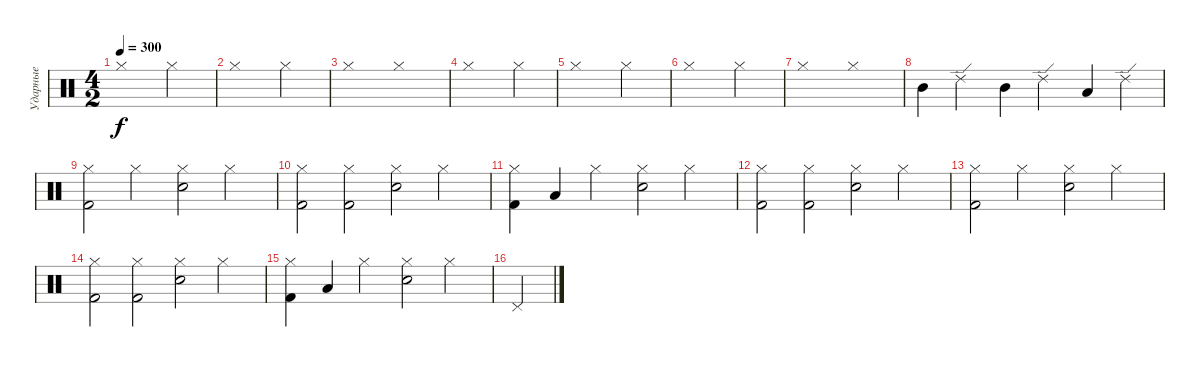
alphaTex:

\track ("Ударные" "Ударные") {instrument percussion}
\staff {score}
\articulation defaults
\ts (4 2)
\tempo 300
\clef neutral
\ks c "Hi-Hat (closed)".1{dy f} "Hi-Hat (closed)".2
|
"Hi-Hat (closed)".1 "Hi-Hat (closed)".2 |
"Hi-Hat (closed)".1 "Hi-Hat (closed)".1 |
"Hi-Hat (closed)".1 "Hi-Hat (closed)".4 |
"Hi-Hat (closed)".1 "Hi-Hat (closed)".2 |
"Hi-Hat (closed)".1 "Hi-Hat (closed)".2 |
"Hi-Hat (closed)".1 "Hi-Hat (closed)".1 |
"Mid Tom (hit)".4 "Ride (edge) 2".2 "Mid Tom (hit)".4 "Ride (edge) 2".2 "Low Tom (hit)".4 "Ride (edge) 2".4 |
("Kick (hit) 2" "Hi-Hat (closed)").2 "Hi-Hat (closed)".2 ("Snare (hit) 2" "Hi-Hat (closed)").2 "Hi-Hat (closed)".2 |
("Kick (hit) 2" "Hi-Hat (closed)").2 ("Kick (hit) 2" "Hi-Hat (closed)").2 ("Snare (hit) 2" "Hi-Hat (closed)").2 "Hi-Hat (closed)".2 |
("Kick (hit) 2" "Hi-Hat (closed)").4 "Low Tom (hit)".4 "Hi-Hat (closed)".2 ("Snare (hit) 2" "Hi-Hat (closed)").2 "Hi-Hat (closed)".2 |
("Kick (hit) 2" "Hi-Hat (closed)").2 ("Kick (hit) 2" "Hi-Hat (closed)").2 ("Snare (hit) 2" "Hi-Hat (closed)").2 "Hi-Hat (closed)".2 |
("Kick (hit) 2" "Hi-Hat (closed)").2 "Hi-Hat (closed)".2 ("Snare (hit) 2" "Hi-Hat (closed)").2 "Hi-Hat (closed)".2 |
("Kick (hit) 2" "Hi-Hat (closed)").2 ("Kick (hit) 2" "Hi-Hat (closed)").2 ("Snare (hit) 2" "Hi-Hat (closed)").2 "Hi-Hat (closed)".2 |
("Kick (hit) 2" "Hi-Hat (closed)").4 "Low Tom (hit)".4 "Hi-Hat (closed)".2 ("Snare (hit) 2" "Hi-Hat (closed)").2 "Hi-Hat (closed)".2 |
"Pedal Hi-Hat (hit)".4
